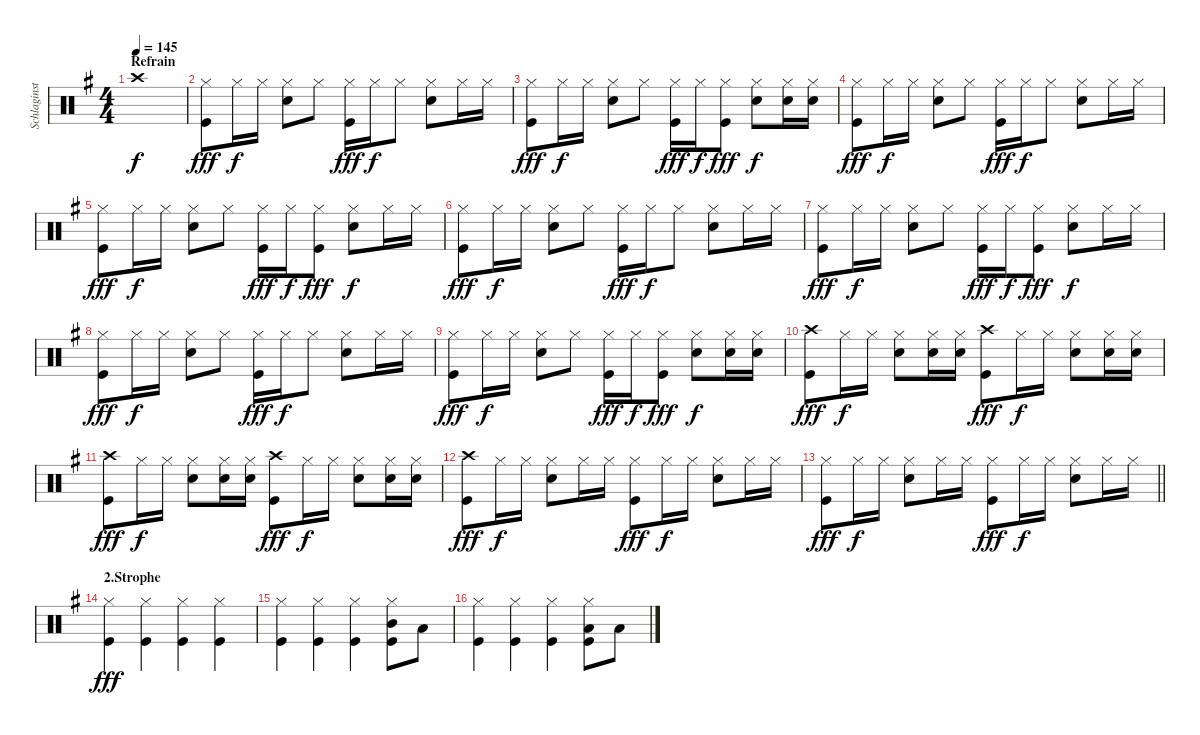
\track ("Schlaginstrumente - Auswahl" "Schlaginst") {instrument percussion}
\staff {score}
\articulation defaults
\ts (4 4)
\section ("" "Refrain")
\tempo 145
\clef neutral
\ks eminor "Crash high (hit)".1{dy f}
|
("Hi-Hat (closed)" "Kick (hit)").8{dy fff} "Hi-Hat (closed)".16{dy f} "Hi-Hat (closed)".16 ("Hi-Hat (closed)" "Snare (hit) 2").8 "Hi-Hat (closed)".8 ("Hi-Hat (closed)" "Kick (hit)").16{dy fff} "Hi-Hat (closed)".16{dy f} "Hi-Hat (closed)".8 ("Hi-Hat (closed)" "Snare (hit) 2").8 "Hi-Hat (closed)".16 "Hi-Hat (closed)".16 |
("Hi-Hat (closed)" "Kick (hit)").8{dy fff} "Hi-Hat (closed)".16{dy f} "Hi-Hat (closed)".16 ("Hi-Hat (closed)" "Snare (hit) 2").8 "Hi-Hat (closed)".8 ("Hi-Hat (closed)" "Kick (hit)").16{dy fff} "Hi-Hat (closed)".16{dy f} ("Hi-Hat (closed)" "Kick (hit)").8{dy fff} ("Hi-Hat (closed)" "Snare (hit) 2").8{dy f} ("Hi-Hat (closed)" "Snare (hit) 2").16 ("Hi-Hat (closed)" "Snare (hit) 2").16 |
("Hi-Hat (closed)" "Kick (hit)").8{dy fff} "Hi-Hat (closed)".16{dy f} "Hi-Hat (closed)".16 ("Hi-Hat (closed)" "Snare (hit) 2").8 "Hi-Hat (closed)".8 ("Hi-Hat (closed)" "Kick (hit)").16{dy fff} "Hi-Hat (closed)".16{dy f} "Hi-Hat (closed)".8 ("Hi-Hat (closed)" "Snare (hit) 2").8 "Hi-Hat (closed)".16 "Hi-Hat (closed)".16 |
("Hi-Hat (closed)" "Kick (hit)").8{dy fff} "Hi-Hat (closed)".16{dy f} "Hi-Hat (closed)".16 ("Hi-Hat (closed)" "Snare (hit) 2").8 "Hi-Hat (closed)".8 ("Hi-Hat (closed)" "Kick (hit)").16{dy fff} "Hi-Hat (closed)".16{dy f} ("Hi-Hat (closed)" "Kick (hit)").8{dy fff} ("Hi-Hat (closed)" "Snare (hit) 2").8{dy f} "Hi-Hat (closed)".16 "Hi-Hat (closed)".16 |
("Hi-Hat (closed)" "Kick (hit)").8{dy fff} "Hi-Hat (closed)".16{dy f} "Hi-Hat (closed)".16 ("Hi-Hat (closed)" "Snare (hit) 2").8 "Hi-Hat (closed)".8 ("Hi-Hat (closed)" "Kick (hit)").16{dy fff} "Hi-Hat (closed)".16{dy f} "Hi-Hat (closed)".8 ("Hi-Hat (closed)" "Snare (hit) 2").8 "Hi-Hat (closed)".16 "Hi-Hat (closed)".16 |
("Hi-Hat (closed)" "Kick (hit)").8{dy fff} "Hi-Hat (closed)".16{dy f} "Hi-Hat (closed)".16 ("Hi-Hat (closed)" "Snare (hit) 2").8 "Hi-Hat (closed)".8 ("Hi-Hat (closed)" "Kick (hit)").16{dy fff} "Hi-Hat (closed)".16{dy f} ("Hi-Hat (closed)" "Kick (hit)").8{dy fff} ("Hi-Hat (closed)" "Snare (hit) 2").8{dy f} "Hi-Hat (closed)".16 "Hi-Hat (closed)".16 |
("Hi-Hat (closed)" "Kick (hit)").8{dy fff} "Hi-Hat (closed)".16{dy f} "Hi-Hat (closed)".16 ("Hi-Hat (closed)" "Snare (hit) 2").8 "Hi-Hat (closed)".8 ("Hi-Hat (closed)" "Kick (hit)").16{dy fff} "Hi-Hat (closed)".16{dy f} "Hi-Hat (closed)".8 ("Hi-Hat (closed)" "Snare (hit) 2").8 "Hi-Hat (closed)".16 "Hi-Hat (closed)".16 |
("Hi-Hat (closed)" "Kick (hit)").8{dy fff} "Hi-Hat (closed)".16{dy f} "Hi-Hat (closed)".16 ("Hi-Hat (closed)" "Snare (hit) 2").8 "Hi-Hat (closed)".8 ("Hi-Hat (closed)" "Kick (hit)").16{dy fff} "Hi-Hat (closed)".16{dy f} ("Hi-Hat (closed)" "Kick (hit)").8{dy fff} ("Hi-Hat (closed)" "Snare (hit) 2").8{dy f} ("Hi-Hat (closed)" "Snare (hit) 2").16 ("Hi-Hat (closed)" "Snare (hit) 2").16 |
("Crash high (hit)" "Kick (hit)").8{dy fff} "Hi-Hat (closed)".16{dy f} "Hi-Hat (closed)".16 ("Hi-Hat (closed)" "Snare (hit) 2").8 ("Hi-Hat (closed)" "Snare (hit) 2").16 ("Hi-Hat (closed)" "Snare (hit) 2").16 ("Crash high (hit)" "Kick (hit)").8{dy fff} "Hi-Hat (closed)".16{dy f} "Hi-Hat (closed)".16 ("Hi-Hat (closed)" "Snare (hit) 2").8 ("Hi-Hat (closed)" "Snare (hit) 2").16 ("Hi-Hat (closed)" "Snare (hit) 2").16 |
("Crash high (hit)" "Kick (hit)").8{dy fff} "Hi-Hat (closed)".16{dy f} "Hi-Hat (closed)".16 ("Hi-Hat (closed)" "Snare (hit) 2").8 ("Hi-Hat (closed)" "Snare (hit) 2").16 ("Hi-Hat (closed)" "Snare (hit) 2").16 ("Crash high (hit)" "Kick (hit)").8{dy fff} "Hi-Hat (closed)".16{dy f} "Hi-Hat (closed)".16 ("Hi-Hat (closed)" "Snare (hit) 2").8 ("Hi-Hat (closed)" "Snare (hit) 2").16 ("Hi-Hat (closed)" "Snare (hit) 2").16 |
("Crash high (hit)" "Kick (hit)").8{dy fff} "Hi-Hat (closed)".16{dy f} "Hi-Hat (closed)".16 ("Hi-Hat (closed)" "Snare (hit) 2").8 "Hi-Hat (closed)".16 "Hi-Hat (closed)".16 ("Hi-Hat (closed)" "Kick (hit)").8{dy fff} "Hi-Hat (closed)".16{dy f} "Hi-Hat (closed)".16 ("Hi-Hat (closed)" "Snare (hit) 2").8 "Hi-Hat (closed)".16 "Hi-Hat (closed)".16 |
\barLineRight lightlight
("Hi-Hat (closed)" "Kick (hit)").8{dy fff} "Hi-Hat (closed)".16{dy f} "Hi-Hat (closed)".16 ("Hi-Hat (closed)" "Snare (hit) 2").8 "Hi-Hat (closed)".16 "Hi-Hat (closed)".16 ("Hi-Hat (closed)" "Kick (hit)").8{dy fff} "Hi-Hat (closed)".16{dy f} "Hi-Hat (closed)".16 ("Hi-Hat (closed)" "Snare (hit) 2").8 "Hi-Hat (closed)".16 "Hi-Hat (closed)".16 |
\section ("" "2.Strophe")
("Hi-Hat (closed)" "Kick (hit)").4{dy fff} ("Hi-Hat (closed)" "Kick (hit)").4 ("Hi-Hat (closed)" "Kick (hit)").4 ("Hi-Hat (closed)" "Kick (hit)").4 |
("Hi-Hat (closed)" "Kick (hit)").4 ("Hi-Hat (closed)" "Kick (hit)").4 ("Hi-Hat (closed)" "Kick (hit)").4 ("Hi-Hat (closed)" "Mid Tom (hit)" "Kick (hit)").8 "Low Tom (hit)".8 |
("Hi-Hat (closed)" "Kick (hit)").4 ("Hi-Hat (closed)" "Kick (hit)").4 ("Hi-Hat (closed)" "Kick (hit)").4 ("Hi-Hat (closed)" "Low Tom (hit)" "Kick (hit)").8 "Low Floor Tom (hit)".8
